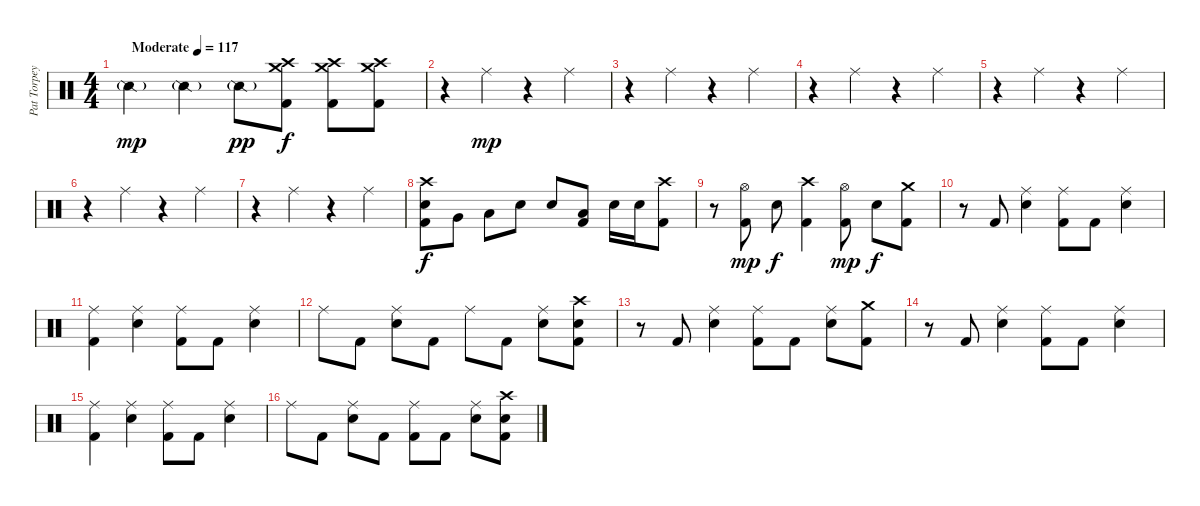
\track ("Pat Torpey" "Pat Torpey") {instrument percussion}
\staff {score}
\articulation defaults
\ts (4 4)
\tempo (117 "Moderate")
\clef neutral
\ks c "Snare (side stick) 2"{g}.4{dy mp} "Snare (side stick) 2"{g}.4 "Snare (side stick) 2"{g}.8{dy pp}
("Crash high (hit)" "Crash medium (hit)" "Kick (hit) 2").8{dy f} ("Crash high (hit)" "Crash medium (hit)" "Kick (hit) 2").8 ("Crash high (hit)" "Crash medium (hit)" "Kick (hit) 2").8 |
r.4 "Ride (middle)".4{dy mp} r.4 "Ride (middle)".4 |
r.4 "Ride (middle)".4 r.4 "Ride (middle)".4 |
r.4 "Ride (middle)".4 r.4 "Ride (middle)".4 |
r.4 "Ride (middle)".4 r.4 "Ride (middle)".4 |
r.4 "Ride (middle)".4 r.4 "Ride (middle)".4 |
r.4 "Ride (middle)".4 r.4 "Ride (middle)".4 |
("Crash high (hit)" "Electric Snare (hit)" "Kick (hit) 2").8{dy f} "Very Low Tom (hit)".8 "Low Floor Tom (hit)".8 "Electric Snare (hit)".8 "Electric Snare (hit)".8 ("Low Floor Tom (hit)" "Kick (hit) 2").8 "Electric Snare (hit)".16 "Electric Snare (hit)".16 ("Crash high (hit)" "Kick (hit) 2").8 |
r.8 ("Hi-Hat (open)" "Kick (hit) 2").8{dy mp} "Electric Snare (hit)".8{dy f} ("Crash high (hit)" "Kick (hit) 2").4 ("Hi-Hat (open)" "Kick (hit) 2").8{dy mp} "Electric Snare (hit)".8{dy f} ("Crash medium (hit)" "Kick (hit) 2").8 |
r.8 "Kick (hit) 2".8 ("Ride (middle)" "Electric Snare (hit)").4 ("Ride (middle)" "Kick (hit) 2").8 "Kick (hit) 2".8 ("Ride (middle)" "Electric Snare (hit)").4 |
("Ride (middle)" "Kick (hit) 2").4 ("Ride (middle)" "Electric Snare (hit)").4 ("Ride (middle)" "Kick (hit) 2").8 "Kick (hit) 2".8 ("Ride (middle)" "Electric Snare (hit)").4 |
"Ride (middle)".8 "Kick (hit) 2".8 ("Ride (middle)" "Electric Snare (hit)").8 "Kick (hit) 2".8 "Ride (middle)".8 "Kick (hit) 2".8 ("Ride (middle)" "Electric Snare (hit)").8 ("Crash high (hit)" "Electric Snare (hit)" "Kick (hit) 2").8 |
r.8 "Kick (hit) 2".8 ("Ride (middle)" "Electric Snare (hit)").4 ("Ride (middle)" "Kick (hit) 2").8 "Kick (hit) 2".8 ("Ride (middle)" "Electric Snare (hit)").8 ("Crash medium (hit)" "Kick (hit) 2").8 |
r.8 "Kick (hit) 2".8 ("Ride (middle)" "Electric Snare (hit)").4 ("Ride (middle)" "Kick (hit) 2").8 "Kick (hit) 2".8 ("Ride (middle)" "Electric Snare (hit)").4 |
("Ride (middle)" "Kick (hit) 2").4 ("Ride (middle)" "Electric Snare (hit)").4 ("Ride (middle)" "Kick (hit) 2").8 "Kick (hit) 2".8 ("Ride (middle)" "Electric Snare (hit)").4 |
"Ride (middle)".8 "Kick (hit) 2".8 ("Ride (middle)" "Electric Snare (hit)").8 "Kick (hit) 2".8 ("Ride (middle)" "Kick (hit) 2").8 "Kick (hit) 2".8 ("Ride (middle)" "Electric Snare (hit)").8 ("Crash high (hit)" "Electric Snare (hit)" "Kick (hit) 2").8
